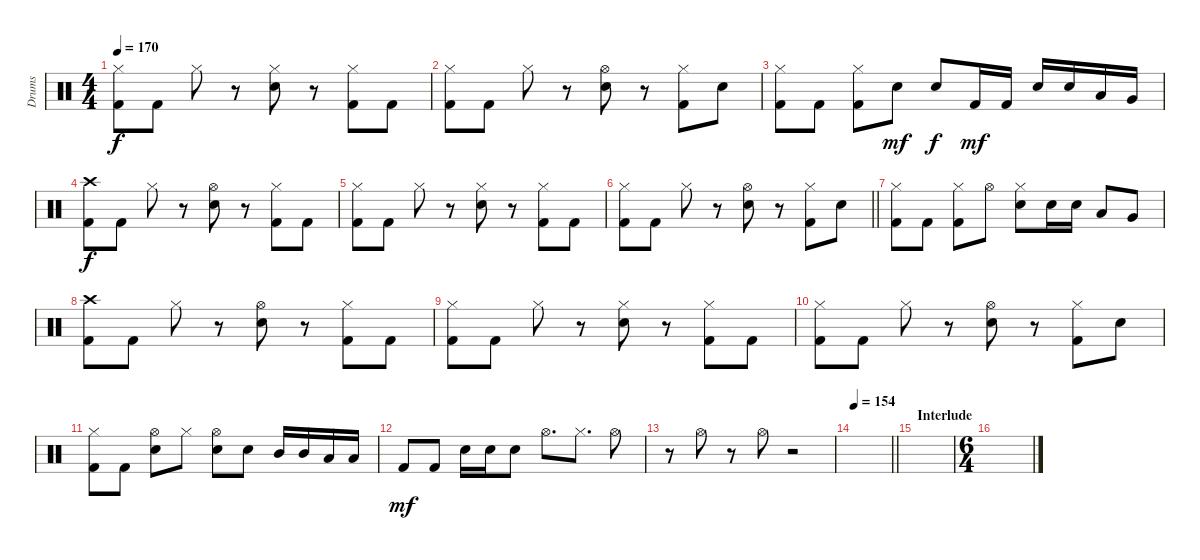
\track ("Drums" "Drums") {instrument percussion}
\staff {score}
\articulation defaults
\ts (4 4)
\tempo 170
\clef neutral
\ks c
("Hi-Hat (closed)" "Kick (hit) 2").8{dy f} "Kick (hit) 2".8 "Hi-Hat (closed)".8 r.8 ("Snare (hit) 2" "Hi-Hat (closed)").8 r.8 ("Hi-Hat (closed)" "Kick (hit) 2").8 "Kick (hit) 2".8 |
("Hi-Hat (closed)" "Kick (hit) 2").8 "Kick (hit) 2".8 "Hi-Hat (closed)".8 r.8 ("Snare (hit) 2" "Hi-Hat (open)").8 r.8 ("Hi-Hat (closed)" "Kick (hit) 2").8 "Snare (hit) 2".8 |
("Hi-Hat (closed)" "Kick (hit) 2").8 "Kick (hit) 2".8 ("Hi-Hat (closed)" "Kick (hit) 2").8 "Snare (hit) 2".8{dy mf} "Snare (hit) 2".8{dy f} "Kick (hit) 2".16{dy mf} "Kick (hit) 2".16 "Snare (hit) 2".16 "Snare (hit) 2".16 "Low Tom (hit)".16 "Very Low Tom (hit)".16 |
("Crash high (hit)" "Kick (hit) 2").8{dy f} "Kick (hit) 2".8 "Hi-Hat (closed)".8 r.8 ("Snare (hit) 2" "Hi-Hat (open)").8 r.8 ("Hi-Hat (closed)" "Kick (hit) 2").8 "Kick (hit) 2".8 |
("Hi-Hat (closed)" "Kick (hit) 2").8 "Kick (hit) 2".8 "Hi-Hat (closed)".8 r.8 ("Snare (hit) 2" "Hi-Hat (closed)").8 r.8 ("Hi-Hat (closed)" "Kick (hit) 2").8 "Kick (hit) 2".8 |
\barLineRight lightlight
("Hi-Hat (closed)" "Kick (hit) 2").8 "Kick (hit) 2".8 "Hi-Hat (closed)".8 r.8 ("Snare (hit) 2" "Hi-Hat (open)").8 r.8 ("Hi-Hat (closed)" "Kick (hit) 2").8 "Snare (hit) 2".8 |
("Hi-Hat (closed)" "Kick (hit) 2").8 "Kick (hit) 2".8 ("Hi-Hat (closed)" "Kick (hit) 2").8 "Hi-Hat (open)".8 ("Snare (hit) 2" "Hi-Hat (closed)").8 "Snare (hit) 2".16 "Snare (hit) 2".16 "Low Tom (hit)".8 "Very Low Tom (hit)".8 |
("Crash high (hit)" "Kick (hit) 2").8 "Kick (hit) 2".8 "Hi-Hat (closed)".8 r.8 ("Snare (hit) 2" "Hi-Hat (open)").8 r.8 ("Hi-Hat (closed)" "Kick (hit) 2").8 "Kick (hit) 2".8 |
("Hi-Hat (closed)" "Kick (hit) 2").8 "Kick (hit) 2".8 "Hi-Hat (closed)".8 r.8 ("Snare (hit) 2" "Hi-Hat (closed)").8 r.8 ("Hi-Hat (closed)" "Kick (hit) 2").8 "Kick (hit) 2".8 |
("Hi-Hat (closed)" "Kick (hit) 2").8 "Kick (hit) 2".8 "Hi-Hat (closed)".8 r.8 ("Snare (hit) 2" "Hi-Hat (open)").8 r.8 ("Hi-Hat (closed)" "Kick (hit) 2").8 "Snare (hit) 2".8 |
("Hi-Hat (closed)" "Kick (hit) 2").8 "Kick (hit) 2".8 ("Snare (hit) 2" "Hi-Hat (open)").8 "Hi-Hat (closed)".8 ("Snare (hit) 2" "Hi-Hat (open)").8 "Snare (hit) 2".8 "Mid Tom (hit)".16 "Mid Tom (hit)".16 "Low Tom (hit)".16 "Low Tom (hit)".16 |
"Kick (hit) 2".8{dy mf} "Kick (hit) 2".8 "Snare (hit) 2".16 "Snare (hit) 2".16 "Snare (hit) 2".8 "Hi-Hat (open)".8{d} "Hi-Hat (closed)".8{d} "Hi-Hat (open)".8 |
r.8 "Hi-Hat (open)".8 r.8 "Hi-Hat (open)".8 r.2 |
\tempo 154
\barLineRight lightlight
|
\section ("" "Interlude")
|
\ts (6 4)
